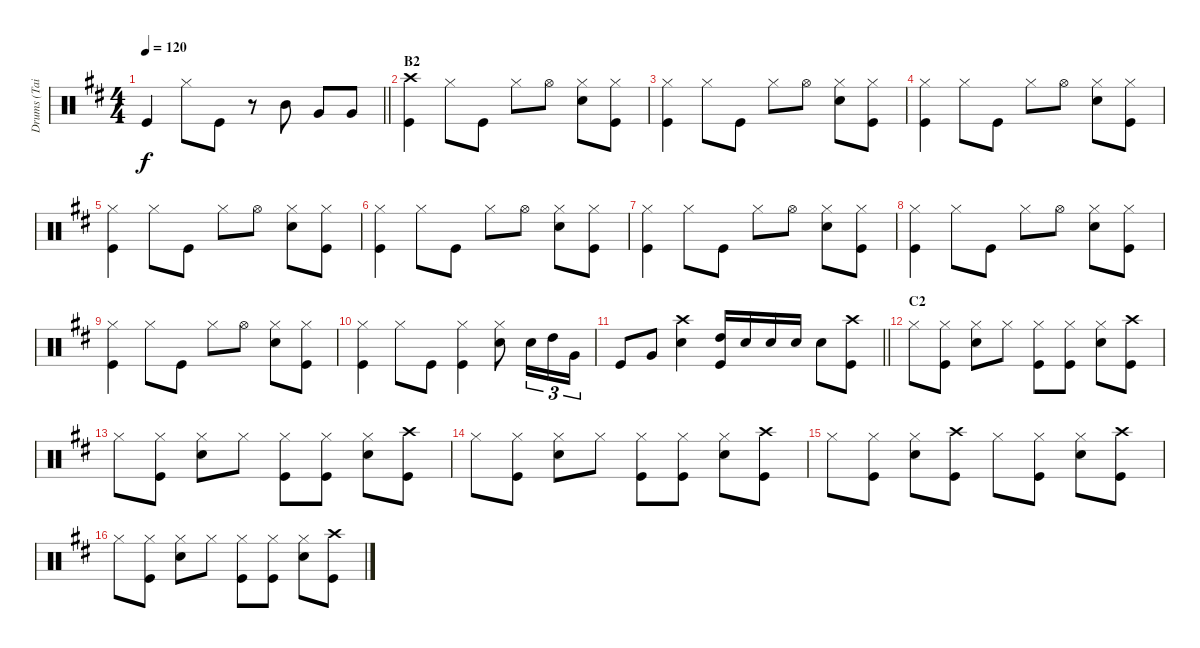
\track ("Drums (Tainaka Ritsu)" "Drums (Tai") {instrument percussion}
\staff {score}
\articulation defaults
\ts (4 4)
\tempo 120
\clef neutral
\barLineRight lightlight
\ks d "Kick (hit)".4{dy f} "Hi-Hat (closed)".8 "Kick (hit)".8
r.8 "Mid Tom (hit)".8 "Very Low Tom (hit)".8 "Very Low Tom (hit)".8 |
\section ("" "B2")
("Crash high (hit)" "Kick (hit)").4 "Hi-Hat (closed)".8 "Kick (hit)".8 "Hi-Hat (closed)".8 "Hi-Hat (open)".8 ("Hi-Hat (closed)" "Snare (hit) 2").8 ("Hi-Hat (closed)" "Kick (hit)").8 |
("Hi-Hat (closed)" "Kick (hit)").4 "Hi-Hat (closed)".8 "Kick (hit)".8 "Hi-Hat (closed)".8 "Hi-Hat (open)".8 ("Hi-Hat (closed)" "Snare (hit) 2").8 ("Hi-Hat (closed)" "Kick (hit)").8 |
("Hi-Hat (closed)" "Kick (hit)").4 "Hi-Hat (closed)".8 "Kick (hit)".8 "Hi-Hat (closed)".8 "Hi-Hat (open)".8 ("Hi-Hat (closed)" "Snare (hit) 2").8 ("Hi-Hat (closed)" "Kick (hit)").8 |
("Hi-Hat (closed)" "Kick (hit)").4 "Hi-Hat (closed)".8 "Kick (hit)".8 "Hi-Hat (closed)".8 "Hi-Hat (open)".8 ("Hi-Hat (closed)" "Snare (hit) 2").8 ("Hi-Hat (closed)" "Kick (hit)").8 |
("Hi-Hat (closed)" "Kick (hit)").4 "Hi-Hat (closed)".8 "Kick (hit)".8 "Hi-Hat (closed)".8 "Hi-Hat (open)".8 ("Hi-Hat (closed)" "Snare (hit) 2").8 ("Hi-Hat (closed)" "Kick (hit)").8 |
("Hi-Hat (closed)" "Kick (hit)").4 "Hi-Hat (closed)".8 "Kick (hit)".8 "Hi-Hat (closed)".8 "Hi-Hat (open)".8 ("Hi-Hat (closed)" "Snare (hit) 2").8 ("Hi-Hat (closed)" "Kick (hit)").8 |
("Hi-Hat (closed)" "Kick (hit)").4 "Hi-Hat (closed)".8 "Kick (hit)".8 "Hi-Hat (closed)".8 "Hi-Hat (open)".8 ("Hi-Hat (closed)" "Snare (hit) 2").8 ("Hi-Hat (closed)" "Kick (hit)").8 |
("Hi-Hat (closed)" "Kick (hit)").4 "Hi-Hat (closed)".8 "Kick (hit)".8 "Hi-Hat (closed)".8 "Hi-Hat (open)".8 ("Hi-Hat (closed)" "Snare (hit) 2").8 ("Hi-Hat (closed)" "Kick (hit)").8 |
("Hi-Hat (closed)" "Kick (hit)").4 "Hi-Hat (closed)".8 "Kick (hit)".8 ("Hi-Hat (closed)" "Kick (hit)").4 ("Hi-Hat (closed)" "Snare (hit) 2").8 "Snare (hit) 2".16{tu (3 2)} "High Tom (hit)".16{tu (3 2)} "Very Low Tom (hit)".16{tu (3 2)} |
\barLineRight lightlight "Kick (hit)".8 "Very Low Tom (hit)".8
("Crash high (hit)" "Snare (hit) 2").4 ("High Tom (hit)" "Kick (hit)").16 "Snare (hit) 2".16 "Snare (hit) 2".16 "Snare (hit) 2".16 "Snare (hit) 2".8 ("Crash high (hit)" "Kick (hit)").8 |
\section ("" "C2")
"Hi-Hat (closed)".8 ("Hi-Hat (closed)" "Kick (hit)").8 ("Hi-Hat (closed)" "Snare (hit) 2").8 "Hi-Hat (closed)".8 ("Hi-Hat (closed)" "Kick (hit)").8 ("Hi-Hat (closed)" "Kick (hit)").8 ("Hi-Hat (closed)" "Snare (hit) 2").8 ("Crash high (hit)" "Kick (hit)").8 |
"Hi-Hat (closed)".8 ("Hi-Hat (closed)" "Kick (hit)").8 ("Hi-Hat (closed)" "Snare (hit) 2").8 "Hi-Hat (closed)".8 ("Hi-Hat (closed)" "Kick (hit)").8 ("Hi-Hat (closed)" "Kick (hit)").8 ("Hi-Hat (closed)" "Snare (hit) 2").8 ("Crash high (hit)" "Kick (hit)").8 |
"Hi-Hat (closed)".8 ("Hi-Hat (closed)" "Kick (hit)").8 ("Hi-Hat (closed)" "Snare (hit) 2").8 "Hi-Hat (closed)".8 ("Hi-Hat (closed)" "Kick (hit)").8 ("Hi-Hat (closed)" "Kick (hit)").8 ("Hi-Hat (closed)" "Snare (hit) 2").8 ("Crash high (hit)" "Kick (hit)").8 |
"Hi-Hat (closed)".8 ("Hi-Hat (closed)" "Kick (hit)").8 ("Hi-Hat (closed)" "Snare (hit) 2").8 ("Crash high (hit)" "Kick (hit)").8 "Hi-Hat (closed)".8 ("Hi-Hat (closed)" "Kick (hit)").8 ("Hi-Hat (closed)" "Snare (hit) 2").8 ("Crash high (hit)" "Kick (hit)").8 |
"Hi-Hat (closed)".8 ("Hi-Hat (closed)" "Kick (hit)").8 ("Hi-Hat (closed)" "Snare (hit) 2").8 "Hi-Hat (closed)".8 ("Hi-Hat (closed)" "Kick (hit)").8 ("Hi-Hat (closed)" "Kick (hit)").8 ("Hi-Hat (closed)" "Snare (hit) 2").8 ("Crash high (hit)" "Kick (hit)").8
